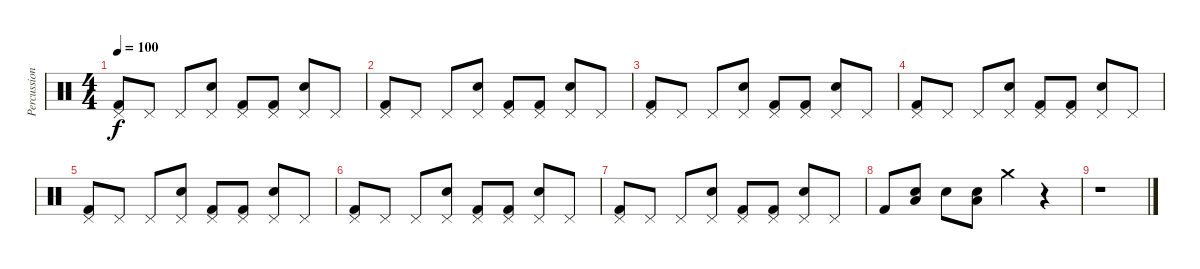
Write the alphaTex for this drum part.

\track ("Percussions" "Percussion") {instrument percussion}
\staff {score}
\articulation defaults
\ts (4 4)
\tempo 100
\clef neutral
\ks c
("Pedal Hi-Hat (hit)" "Kick (hit) 2").8{dy f} "Pedal Hi-Hat (hit)".8 "Pedal Hi-Hat (hit)".8 ("Pedal Hi-Hat (hit)" "Electric Snare (hit)").8 ("Pedal Hi-Hat (hit)" "Kick (hit) 2").8 ("Pedal Hi-Hat (hit)" "Kick (hit) 2").8 ("Pedal Hi-Hat (hit)" "Electric Snare (hit)").8 "Pedal Hi-Hat (hit)".8 |
("Pedal Hi-Hat (hit)" "Kick (hit) 2").8 "Pedal Hi-Hat (hit)".8 "Pedal Hi-Hat (hit)".8 ("Pedal Hi-Hat (hit)" "Electric Snare (hit)").8 ("Pedal Hi-Hat (hit)" "Kick (hit) 2").8 ("Pedal Hi-Hat (hit)" "Kick (hit) 2").8 ("Pedal Hi-Hat (hit)" "Electric Snare (hit)").8 "Pedal Hi-Hat (hit)".8 |
("Pedal Hi-Hat (hit)" "Kick (hit) 2").8 "Pedal Hi-Hat (hit)".8 "Pedal Hi-Hat (hit)".8 ("Pedal Hi-Hat (hit)" "Electric Snare (hit)").8 ("Pedal Hi-Hat (hit)" "Kick (hit) 2").8 ("Pedal Hi-Hat (hit)" "Kick (hit) 2").8 ("Pedal Hi-Hat (hit)" "Electric Snare (hit)").8 "Pedal Hi-Hat (hit)".8 |
("Pedal Hi-Hat (hit)" "Kick (hit) 2").8 "Pedal Hi-Hat (hit)".8 "Pedal Hi-Hat (hit)".8 ("Pedal Hi-Hat (hit)" "Electric Snare (hit)").8 ("Pedal Hi-Hat (hit)" "Kick (hit) 2").8 ("Pedal Hi-Hat (hit)" "Kick (hit) 2").8 ("Pedal Hi-Hat (hit)" "Electric Snare (hit)").8 "Pedal Hi-Hat (hit)".8 |
("Pedal Hi-Hat (hit)" "Kick (hit) 2").8 "Pedal Hi-Hat (hit)".8 "Pedal Hi-Hat (hit)".8 ("Pedal Hi-Hat (hit)" "Electric Snare (hit)").8 ("Pedal Hi-Hat (hit)" "Kick (hit) 2").8 ("Pedal Hi-Hat (hit)" "Kick (hit) 2").8 ("Pedal Hi-Hat (hit)" "Electric Snare (hit)").8 "Pedal Hi-Hat (hit)".8 |
("Pedal Hi-Hat (hit)" "Kick (hit) 2").8 "Pedal Hi-Hat (hit)".8 "Pedal Hi-Hat (hit)".8 ("Pedal Hi-Hat (hit)" "Electric Snare (hit)").8 ("Pedal Hi-Hat (hit)" "Kick (hit) 2").8 ("Pedal Hi-Hat (hit)" "Kick (hit) 2").8 ("Pedal Hi-Hat (hit)" "Electric Snare (hit)").8 "Pedal Hi-Hat (hit)".8 |
("Pedal Hi-Hat (hit)" "Kick (hit) 2").8 "Pedal Hi-Hat (hit)".8 "Pedal Hi-Hat (hit)".8 ("Pedal Hi-Hat (hit)" "Electric Snare (hit)").8 ("Pedal Hi-Hat (hit)" "Kick (hit) 2").8 ("Pedal Hi-Hat (hit)" "Kick (hit) 2").8 ("Pedal Hi-Hat (hit)" "Electric Snare (hit)").8 "Pedal Hi-Hat (hit)".8 |
"Kick (hit) 2".8 ("Electric Snare (hit)" "Low Floor Tom (hit)").8 "Electric Snare (hit)".8 ("Electric Snare (hit)" "Low Floor Tom (hit)").8 "Crash medium (hit)".4 r.4 |
r.1
